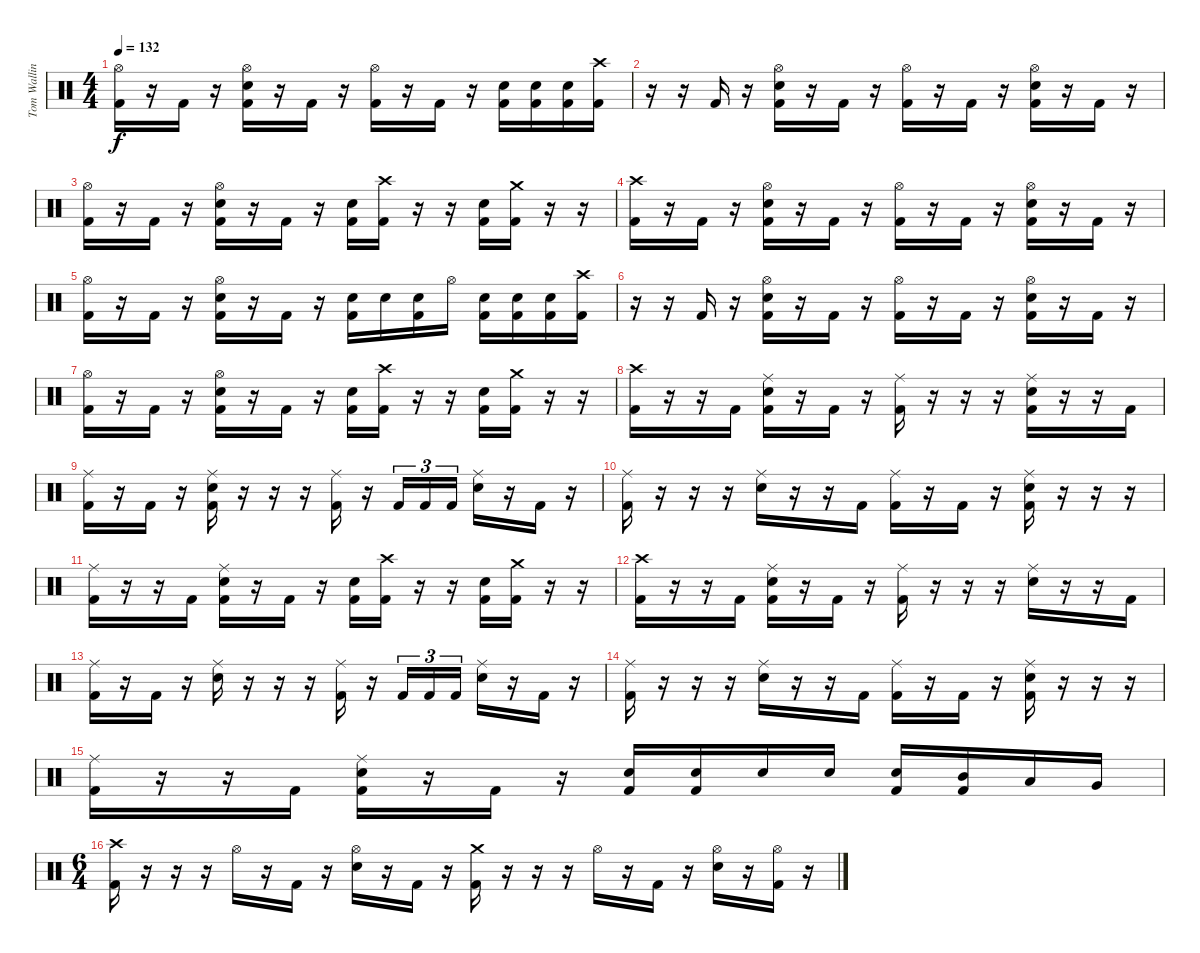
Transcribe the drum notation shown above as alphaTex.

\track ("Tom Walling [Drums]" "Tom Wallin") {instrument percussion}
\staff {score}
\articulation defaults
\ts (4 4)
\tempo 132
\clef neutral
\ks c
("Hi-Hat (open)" "Kick (hit) 2").16{dy f} r.16 "Kick (hit) 2".16 r.16 ("Hi-Hat (open)" "Electric Snare (hit)" "Kick (hit) 2").16 r.16 "Kick (hit) 2".16 r.16 ("Hi-Hat (open)" "Kick (hit) 2").16 r.16 "Kick (hit) 2".16 r.16 ("Electric Snare (hit)" "Kick (hit) 2").16 ("Electric Snare (hit)" "Kick (hit) 2").16 ("Electric Snare (hit)" "Kick (hit) 2").16 ("Crash high (hit)" "Kick (hit) 2").16 |
r.16 r.16 "Kick (hit) 2".16 r.16 ("Hi-Hat (open)" "Electric Snare (hit)" "Kick (hit) 2").16 r.16 "Kick (hit) 2".16 r.16 ("Hi-Hat (open)" "Kick (hit) 2").16 r.16 "Kick (hit) 2".16 r.16 ("Hi-Hat (open)" "Electric Snare (hit)" "Kick (hit) 2").16 r.16 "Kick (hit) 2".16 r.16 |
("Hi-Hat (open)" "Kick (hit) 2").16 r.16 "Kick (hit) 2".16 r.16 ("Hi-Hat (open)" "Electric Snare (hit)" "Kick (hit) 2").16 r.16 "Kick (hit) 2".16 r.16 ("Electric Snare (hit)" "Kick (hit) 2").16 ("Crash high (hit)" "Kick (hit) 2").16 r.16 r.16 ("Electric Snare (hit)" "Kick (hit) 2").16 ("Crash medium (hit)" "Kick (hit) 2").16 r.16 r.16 |
("Crash high (hit)" "Kick (hit) 2").16 r.16 "Kick (hit) 2".16 r.16 ("Hi-Hat (open)" "Electric Snare (hit)" "Kick (hit) 2").16 r.16 "Kick (hit) 2".16 r.16 ("Hi-Hat (open)" "Kick (hit) 2").16 r.16 "Kick (hit) 2".16 r.16 ("Hi-Hat (open)" "Electric Snare (hit)" "Kick (hit) 2").16 r.16 "Kick (hit) 2".16 r.16 |
("Hi-Hat (open)" "Kick (hit) 2").16 r.16 "Kick (hit) 2".16 r.16 ("Hi-Hat (open)" "Electric Snare (hit)" "Kick (hit) 2").16 r.16 "Kick (hit) 2".16 r.16 ("Electric Snare (hit)" "Kick (hit) 2").16 "Electric Snare (hit)".16 ("Electric Snare (hit)" "Kick (hit) 2").16 "Hi-Hat (open)".16 ("Electric Snare (hit)" "Kick (hit) 2").16 ("Electric Snare (hit)" "Kick (hit) 2").16 ("Electric Snare (hit)" "Kick (hit) 2").16 ("Crash high (hit)" "Kick (hit) 2").16 |
r.16 r.16 "Kick (hit) 2".16 r.16 ("Hi-Hat (open)" "Electric Snare (hit)" "Kick (hit) 2").16 r.16 "Kick (hit) 2".16 r.16 ("Hi-Hat (open)" "Kick (hit) 2").16 r.16 "Kick (hit) 2".16 r.16 ("Hi-Hat (open)" "Electric Snare (hit)" "Kick (hit) 2").16 r.16 "Kick (hit) 2".16 r.16 |
("Hi-Hat (open)" "Kick (hit) 2").16 r.16 "Kick (hit) 2".16 r.16 ("Hi-Hat (open)" "Electric Snare (hit)" "Kick (hit) 2").16 r.16 "Kick (hit) 2".16 r.16 ("Electric Snare (hit)" "Kick (hit) 2").16 ("Crash high (hit)" "Kick (hit) 2").16 r.16 r.16 ("Electric Snare (hit)" "Kick (hit) 2").16 ("Crash medium (hit)" "Kick (hit) 2").16 r.16 r.16 |
("Crash high (hit)" "Kick (hit) 2").16 r.16 r.16 "Kick (hit) 2".16 ("Ride (middle)" "Electric Snare (hit)" "Kick (hit) 2").16 r.16 "Kick (hit) 2".16 r.16 ("Ride (middle)" "Kick (hit) 2").16 r.16 r.16 r.16 ("Ride (middle)" "Electric Snare (hit)" "Kick (hit) 2").16 r.16 r.16 "Kick (hit) 2".16 |
("Ride (middle)" "Kick (hit) 2").16 r.16 "Kick (hit) 2".16 r.16 ("Ride (middle)" "Electric Snare (hit)" "Kick (hit) 2").16 r.16 r.16 r.16 ("Ride (middle)" "Kick (hit) 2").16 r.16 "Kick (hit) 2".16{tu (3 2)} "Kick (hit) 2".16{tu (3 2)} "Kick (hit) 2".16{tu (3 2)} ("Ride (middle)" "Electric Snare (hit)").16 r.16 "Kick (hit) 2".16 r.16 |
("Ride (middle)" "Kick (hit) 2").16 r.16 r.16 r.16 ("Ride (middle)" "Electric Snare (hit)").16 r.16 r.16 "Kick (hit) 2".16 ("Ride (middle)" "Kick (hit) 2").16 r.16 "Kick (hit) 2".16 r.16 ("Ride (middle)" "Electric Snare (hit)" "Kick (hit) 2").16 r.16 r.16 r.16 |
("Ride (middle)" "Kick (hit) 2").16 r.16 r.16 "Kick (hit) 2".16 ("Ride (middle)" "Electric Snare (hit)" "Kick (hit) 2").16 r.16 "Kick (hit) 2".16 r.16 ("Electric Snare (hit)" "Kick (hit) 2").16 ("Crash high (hit)" "Kick (hit) 2").16 r.16 r.16 ("Electric Snare (hit)" "Kick (hit) 2").16 ("Crash medium (hit)" "Kick (hit) 2").16 r.16 r.16 |
("Crash high (hit)" "Kick (hit) 2").16 r.16 r.16 "Kick (hit) 2".16 ("Ride (middle)" "Electric Snare (hit)" "Kick (hit) 2").16 r.16 "Kick (hit) 2".16 r.16 ("Ride (middle)" "Kick (hit) 2").16 r.16 r.16 r.16 ("Ride (middle)" "Electric Snare (hit)").16 r.16 r.16 "Kick (hit) 2".16 |
("Ride (middle)" "Kick (hit) 2").16 r.16 "Kick (hit) 2".16 r.16 ("Ride (middle)" "Electric Snare (hit)").16 r.16 r.16 r.16 ("Ride (middle)" "Kick (hit) 2").16 r.16 "Kick (hit) 2".16{tu (3 2)} "Kick (hit) 2".16{tu (3 2)} "Kick (hit) 2".16{tu (3 2)} ("Ride (middle)" "Electric Snare (hit)").16 r.16 "Kick (hit) 2".16 r.16 |
("Ride (middle)" "Kick (hit) 2").16 r.16 r.16 r.16 ("Ride (middle)" "Electric Snare (hit)").16 r.16 r.16 "Kick (hit) 2".16 ("Ride (middle)" "Kick (hit) 2").16 r.16 "Kick (hit) 2".16 r.16 ("Ride (middle)" "Electric Snare (hit)" "Kick (hit) 2").16 r.16 r.16 r.16 |
("Ride (middle)" "Kick (hit) 2").16 r.16 r.16 "Kick (hit) 2".16 ("Ride (middle)" "Electric Snare (hit)" "Kick (hit) 2").16 r.16 "Kick (hit) 2".16 r.16 ("Electric Snare (hit)" "Kick (hit) 2").16 ("Electric Snare (hit)" "Kick (hit) 2").16 "Electric Snare (hit)".16 "Electric Snare (hit)".16 ("Electric Snare (hit)" "Kick (hit) 2").16 ("Mid Tom (hit)" "Kick (hit) 2").16 "Low Tom (hit)".16 "Very Low Tom (hit)".16 |
\ts (6 4)
("Crash high (hit)" "Kick (hit) 2").16 r.16 r.16 r.16 "Hi-Hat (open)".16 r.16 "Kick (hit) 2".16 r.16 ("Hi-Hat (open)" "Electric Snare (hit)").16 r.16 "Kick (hit) 2".16 r.16 ("Crash medium (hit)" "Kick (hit) 2").16 r.16 r.16 r.16 "Hi-Hat (open)".16 r.16 "Kick (hit) 2".16 r.16 ("Hi-Hat (open)" "Electric Snare (hit)").16 r.16 ("Hi-Hat (open)" "Kick (hit) 2").16 r.16
